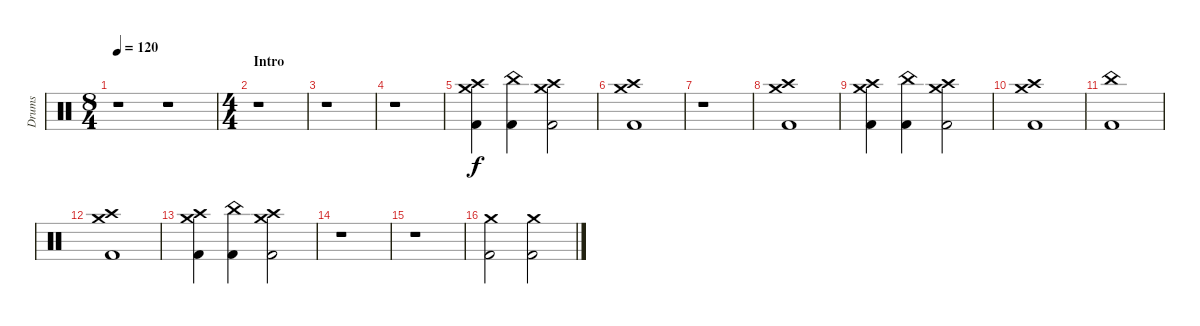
\track ("Drums" "Drums") {instrument percussion}
\staff {score}
\articulation defaults
\ts (8 4)
\tempo 120
\clef neutral
\ks c
r.1{dy f} r.1 |
\ts (4 4)
\section ("" "Intro")
r.1 |
r.1 |
r.1 |
("Crash medium (hit)" "Crash high (hit)" "Kick (hit) 2").4 ("China (hit)" "Kick (hit) 2").4 ("Crash medium (hit)" "Crash high (hit)" "Kick (hit) 2").2 |
("Crash medium (hit)" "Crash high (hit)" "Kick (hit) 2").1 |
r.1 |
("Crash medium (hit)" "Crash high (hit)" "Kick (hit) 2").1 |
("Crash medium (hit)" "Crash high (hit)" "Kick (hit) 2").4 ("China (hit)" "Kick (hit) 2").4 ("Crash medium (hit)" "Crash high (hit)" "Kick (hit) 2").2 |
("Crash medium (hit)" "Crash high (hit)" "Kick (hit) 2").1 |
("China (hit)" "Kick (hit) 2").1 |
("Crash medium (hit)" "Crash high (hit)" "Kick (hit) 2").1 |
("Crash medium (hit)" "Crash high (hit)" "Kick (hit) 2").4 ("China (hit)" "Kick (hit) 2").4 ("Crash medium (hit)" "Crash high (hit)" "Kick (hit) 2").2 |
r.1 |
r.1 |
("Crash medium (hit)" "Kick (hit) 2").2 ("Crash medium (hit)" "Kick (hit) 2").2
